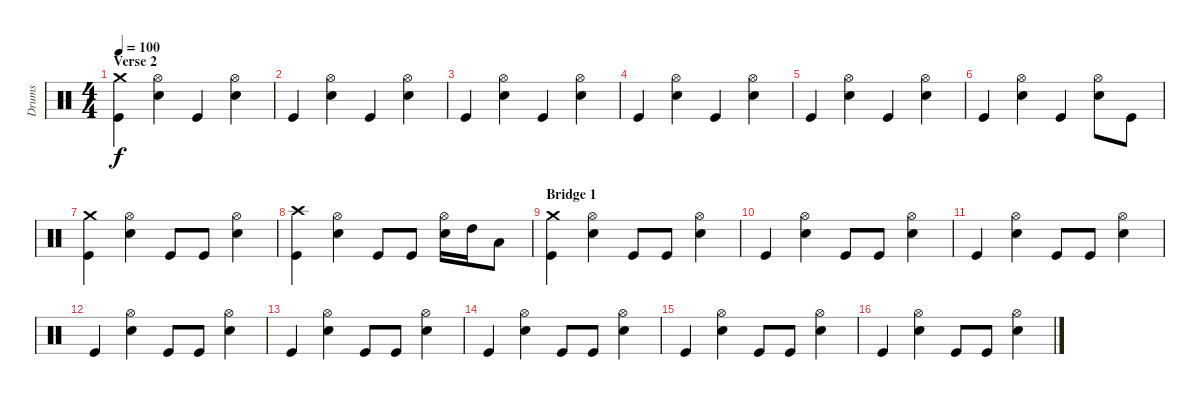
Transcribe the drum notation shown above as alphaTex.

\track ("Drums" "Drums") {instrument percussion}
\staff {score}
\articulation defaults
\ts (4 4)
\section ("" "Verse 2")
\tempo 100
\clef neutral
\ks c
("Crash medium (hit)" "Kick (hit)").4{dy f} ("Hi-Hat (open)" "Electric Snare (hit)").4 "Kick (hit)".4 ("Hi-Hat (open)" "Electric Snare (hit)").4 |
"Kick (hit)".4 ("Hi-Hat (open)" "Electric Snare (hit)").4 "Kick (hit)".4 ("Hi-Hat (open)" "Electric Snare (hit)").4 |
"Kick (hit)".4 ("Hi-Hat (open)" "Electric Snare (hit)").4 "Kick (hit)".4 ("Hi-Hat (open)" "Electric Snare (hit)").4 |
"Kick (hit)".4 ("Hi-Hat (open)" "Electric Snare (hit)").4 "Kick (hit)".4 ("Hi-Hat (open)" "Electric Snare (hit)").4 |
"Kick (hit)".4 ("Hi-Hat (open)" "Electric Snare (hit)").4 "Kick (hit)".4 ("Hi-Hat (open)" "Electric Snare (hit)").4 |
"Kick (hit)".4 ("Hi-Hat (open)" "Electric Snare (hit)").4 "Kick (hit)".4 ("Hi-Hat (open)" "Electric Snare (hit)").8 "Kick (hit)".8 |
("Crash medium (hit)" "Kick (hit)").4 ("Hi-Hat (open)" "Electric Snare (hit)").4 "Kick (hit)".8 "Kick (hit)".8 ("Hi-Hat (open)" "Electric Snare (hit)").4 |
("Crash high (hit)" "Kick (hit)").4 ("Hi-Hat (open)" "Electric Snare (hit)").4 "Kick (hit)".8 "Kick (hit)".8 ("Hi-Hat (open)" "Electric Snare (hit)").16 "High Tom (hit)".16 "Low Tom (hit)".8 |
\section ("" "Bridge 1")
("Crash medium (hit)" "Kick (hit)").4 ("Hi-Hat (open)" "Electric Snare (hit)").4 "Kick (hit)".8 "Kick (hit)".8 ("Hi-Hat (open)" "Electric Snare (hit)").4 |
"Kick (hit)".4 ("Hi-Hat (open)" "Electric Snare (hit)").4 "Kick (hit)".8 "Kick (hit)".8 ("Hi-Hat (open)" "Electric Snare (hit)").4 |
"Kick (hit)".4 ("Hi-Hat (open)" "Electric Snare (hit)").4 "Kick (hit)".8 "Kick (hit)".8 ("Hi-Hat (open)" "Electric Snare (hit)").4 |
"Kick (hit)".4 ("Hi-Hat (open)" "Electric Snare (hit)").4 "Kick (hit)".8 "Kick (hit)".8 ("Hi-Hat (open)" "Electric Snare (hit)").4 |
"Kick (hit)".4 ("Hi-Hat (open)" "Electric Snare (hit)").4 "Kick (hit)".8 "Kick (hit)".8 ("Hi-Hat (open)" "Electric Snare (hit)").4 |
"Kick (hit)".4 ("Hi-Hat (open)" "Electric Snare (hit)").4 "Kick (hit)".8 "Kick (hit)".8 ("Hi-Hat (open)" "Electric Snare (hit)").4 |
"Kick (hit)".4 ("Hi-Hat (open)" "Electric Snare (hit)").4 "Kick (hit)".8 "Kick (hit)".8 ("Hi-Hat (open)" "Electric Snare (hit)").4 |
"Kick (hit)".4 ("Hi-Hat (open)" "Electric Snare (hit)").4 "Kick (hit)".8 "Kick (hit)".8 ("Hi-Hat (open)" "Electric Snare (hit)").4
